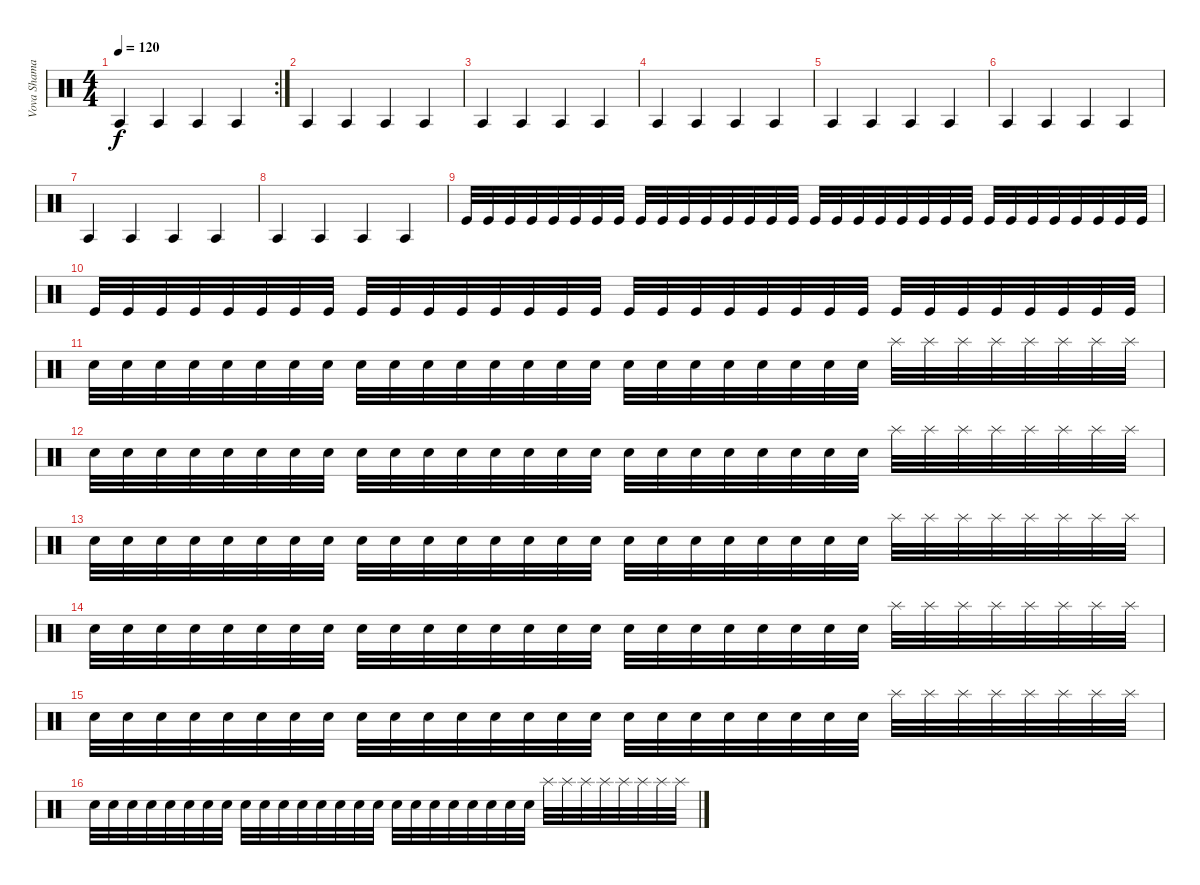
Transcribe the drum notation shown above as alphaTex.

\track ("Vova Shamay 2" "Vova Shama") {instrument percussion}
\staff {score}
\articulation defaults
\rc 2
\ts (4 4)
\tempo 120
\clef neutral
\ks c "Agogo tow (hit)".4{dy f} "Agogo tow (hit)".4 "Agogo tow (hit)".4 "Agogo tow (hit)".4
|
"Agogo tow (hit)".4 "Agogo tow (hit)".4 "Agogo tow (hit)".4 "Agogo tow (hit)".4 |
"Agogo tow (hit)".4 "Agogo tow (hit)".4 "Agogo tow (hit)".4 "Agogo tow (hit)".4 |
"Agogo tow (hit)".4 "Agogo tow (hit)".4 "Agogo tow (hit)".4 "Agogo tow (hit)".4 |
"Agogo tow (hit)".4 "Agogo tow (hit)".4 "Agogo tow (hit)".4 "Agogo tow (hit)".4 |
"Agogo tow (hit)".4 "Agogo tow (hit)".4 "Agogo tow (hit)".4 "Agogo tow (hit)".4 |
"Agogo tow (hit)".4 "Agogo tow (hit)".4 "Agogo tow (hit)".4 "Agogo tow (hit)".4 |
"Agogo tow (hit)".4 "Agogo tow (hit)".4 "Agogo tow (hit)".4 "Agogo tow (hit)".4 |
"Kick (hit)".32 "Kick (hit)".32 "Kick (hit)".32 "Kick (hit)".32 "Kick (hit)".32 "Kick (hit)".32 "Kick (hit)".32 "Kick (hit)".32 "Kick (hit)".32 "Kick (hit)".32 "Kick (hit)".32 "Kick (hit)".32 "Kick (hit)".32 "Kick (hit)".32 "Kick (hit)".32 "Kick (hit)".32 "Kick (hit)".32 "Kick (hit)".32 "Kick (hit)".32 "Kick (hit)".32 "Kick (hit)".32 "Kick (hit)".32 "Kick (hit)".32 "Kick (hit)".32 "Kick (hit)".32 "Kick (hit)".32 "Kick (hit)".32 "Kick (hit)".32 "Kick (hit)".32 "Kick (hit)".32 "Kick (hit)".32 "Kick (hit)".32 |
"Kick (hit)".32 "Kick (hit)".32 "Kick (hit)".32 "Kick (hit)".32 "Kick (hit)".32 "Kick (hit)".32 "Kick (hit)".32 "Kick (hit)".32 "Kick (hit)".32 "Kick (hit)".32 "Kick (hit)".32 "Kick (hit)".32 "Kick (hit)".32 "Kick (hit)".32 "Kick (hit)".32 "Kick (hit)".32 "Kick (hit)".32 "Kick (hit)".32 "Kick (hit)".32 "Kick (hit)".32 "Kick (hit)".32 "Kick (hit)".32 "Kick (hit)".32 "Kick (hit)".32 "Kick (hit)".32 "Kick (hit)".32 "Kick (hit)".32 "Kick (hit)".32 "Kick (hit)".32 "Kick (hit)".32 "Kick (hit)".32 "Kick (hit)".32 |
"Hand Clap (hit)".32 "Hand Clap (hit)".32 "Hand Clap (hit)".32 "Hand Clap (hit)".32 "Hand Clap (hit)".32 "Hand Clap (hit)".32 "Hand Clap (hit)".32 "Hand Clap (hit)".32 "Electric Snare (hit)".32 "Electric Snare (hit)".32 "Electric Snare (hit)".32 "Electric Snare (hit)".32 "Electric Snare (hit)".32 "Electric Snare (hit)".32 "Electric Snare (hit)".32 "Electric Snare (hit)".32 "Electric Snare (hit)".32 "Electric Snare (hit)".32 "Electric Snare (hit)".32 "Electric Snare (hit)".32 "Electric Snare (hit)".32 "Electric Snare (hit)".32 "Electric Snare (hit)".32 "Electric Snare (hit)".32 "Splash (hit)".32 "Splash (hit)".32 "Splash (hit)".32 "Splash (hit)".32 "Splash (hit)".32 "Splash (hit)".32 "Splash (hit)".32 "Splash (hit)".32 |
"Hand Clap (hit)".32 "Hand Clap (hit)".32 "Hand Clap (hit)".32 "Hand Clap (hit)".32 "Hand Clap (hit)".32 "Hand Clap (hit)".32 "Hand Clap (hit)".32 "Hand Clap (hit)".32 "Electric Snare (hit)".32 "Electric Snare (hit)".32 "Electric Snare (hit)".32 "Electric Snare (hit)".32 "Electric Snare (hit)".32 "Electric Snare (hit)".32 "Electric Snare (hit)".32 "Electric Snare (hit)".32 "Electric Snare (hit)".32 "Electric Snare (hit)".32 "Electric Snare (hit)".32 "Electric Snare (hit)".32 "Electric Snare (hit)".32 "Electric Snare (hit)".32 "Electric Snare (hit)".32 "Electric Snare (hit)".32 "Splash (hit)".32 "Splash (hit)".32 "Splash (hit)".32 "Splash (hit)".32 "Splash (hit)".32 "Splash (hit)".32 "Splash (hit)".32 "Splash (hit)".32 |
"Hand Clap (hit)".32 "Hand Clap (hit)".32 "Hand Clap (hit)".32 "Hand Clap (hit)".32 "Hand Clap (hit)".32 "Hand Clap (hit)".32 "Hand Clap (hit)".32 "Hand Clap (hit)".32 "Electric Snare (hit)".32 "Electric Snare (hit)".32 "Electric Snare (hit)".32 "Electric Snare (hit)".32 "Electric Snare (hit)".32 "Electric Snare (hit)".32 "Electric Snare (hit)".32 "Electric Snare (hit)".32 "Electric Snare (hit)".32 "Electric Snare (hit)".32 "Electric Snare (hit)".32 "Electric Snare (hit)".32 "Electric Snare (hit)".32 "Electric Snare (hit)".32 "Electric Snare (hit)".32 "Electric Snare (hit)".32 "Splash (hit)".32 "Splash (hit)".32 "Splash (hit)".32 "Splash (hit)".32 "Splash (hit)".32 "Splash (hit)".32 "Splash (hit)".32 "Splash (hit)".32 |
"Hand Clap (hit)".32 "Hand Clap (hit)".32 "Hand Clap (hit)".32 "Hand Clap (hit)".32 "Hand Clap (hit)".32 "Hand Clap (hit)".32 "Hand Clap (hit)".32 "Hand Clap (hit)".32 "Electric Snare (hit)".32 "Electric Snare (hit)".32 "Electric Snare (hit)".32 "Electric Snare (hit)".32 "Electric Snare (hit)".32 "Electric Snare (hit)".32 "Electric Snare (hit)".32 "Electric Snare (hit)".32 "Electric Snare (hit)".32 "Electric Snare (hit)".32 "Electric Snare (hit)".32 "Electric Snare (hit)".32 "Electric Snare (hit)".32 "Electric Snare (hit)".32 "Electric Snare (hit)".32 "Electric Snare (hit)".32 "Splash (hit)".32 "Splash (hit)".32 "Splash (hit)".32 "Splash (hit)".32 "Splash (hit)".32 "Splash (hit)".32 "Splash (hit)".32 "Splash (hit)".32 |
"Hand Clap (hit)".32 "Hand Clap (hit)".32 "Hand Clap (hit)".32 "Hand Clap (hit)".32 "Hand Clap (hit)".32 "Hand Clap (hit)".32 "Hand Clap (hit)".32 "Hand Clap (hit)".32 "Electric Snare (hit)".32 "Electric Snare (hit)".32 "Electric Snare (hit)".32 "Electric Snare (hit)".32 "Electric Snare (hit)".32 "Electric Snare (hit)".32 "Electric Snare (hit)".32 "Electric Snare (hit)".32 "Electric Snare (hit)".32 "Electric Snare (hit)".32 "Electric Snare (hit)".32 "Electric Snare (hit)".32 "Electric Snare (hit)".32 "Electric Snare (hit)".32 "Electric Snare (hit)".32 "Electric Snare (hit)".32 "Splash (hit)".32 "Splash (hit)".32 "Splash (hit)".32 "Splash (hit)".32 "Splash (hit)".32 "Splash (hit)".32 "Splash (hit)".32 "Splash (hit)".32 |
"Hand Clap (hit)".32 "Hand Clap (hit)".32 "Hand Clap (hit)".32 "Hand Clap (hit)".32 "Hand Clap (hit)".32 "Hand Clap (hit)".32 "Hand Clap (hit)".32 "Hand Clap (hit)".32 "Electric Snare (hit)".32 "Electric Snare (hit)".32 "Electric Snare (hit)".32 "Electric Snare (hit)".32 "Electric Snare (hit)".32 "Electric Snare (hit)".32 "Electric Snare (hit)".32 "Electric Snare (hit)".32 "Electric Snare (hit)".32 "Electric Snare (hit)".32 "Electric Snare (hit)".32 "Electric Snare (hit)".32 "Electric Snare (hit)".32 "Electric Snare (hit)".32 "Electric Snare (hit)".32 "Electric Snare (hit)".32 "Splash (hit)".32 "Splash (hit)".32 "Splash (hit)".32 "Splash (hit)".32 "Splash (hit)".32 "Splash (hit)".32 "Splash (hit)".32 "Splash (hit)".32
